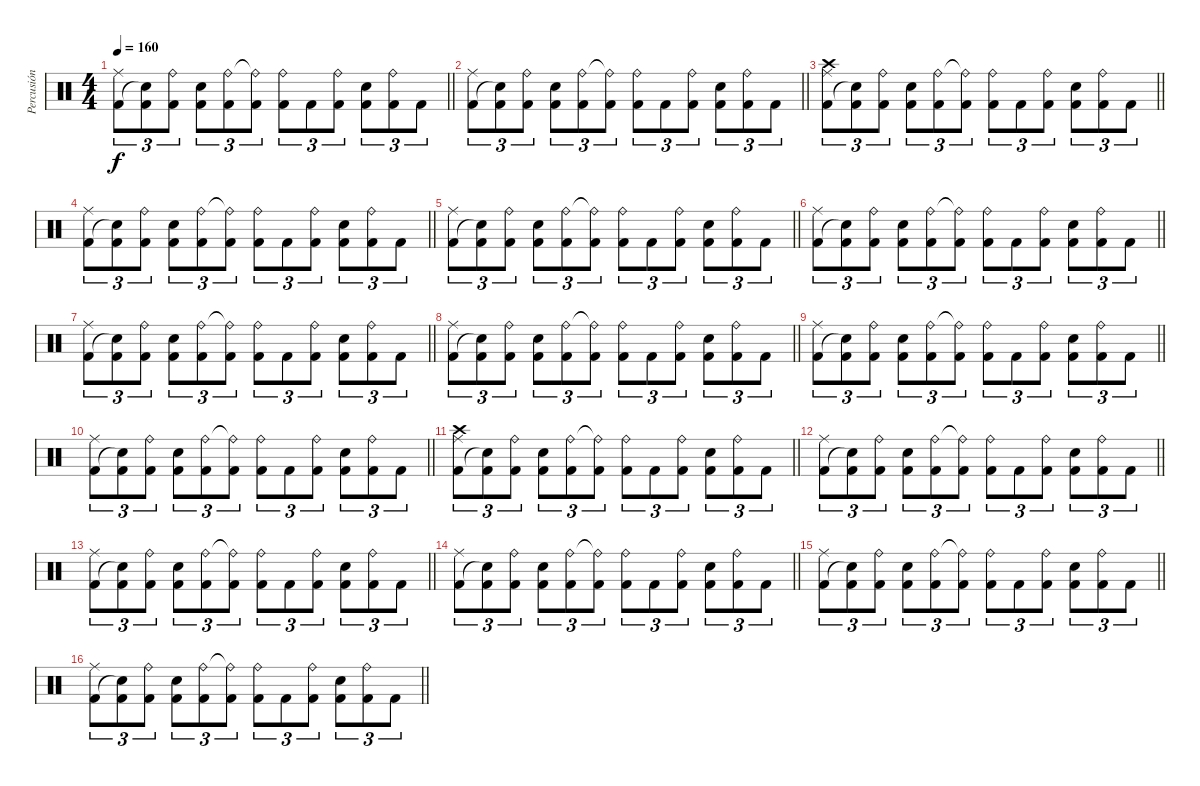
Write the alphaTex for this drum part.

\track ("Percusión" "Percusión") {instrument percussion}
\staff {score}
\articulation defaults
\ts (4 4)
\tempo 160
\clef neutral
\barLineRight lightlight
\ks c
("Ride (middle)" "Kick (hit) 2").8{tu (3 2) dy f} ("Kick (hit) 2" "Snare (hit)"{t}).8{tu (3 2)} ("Ride (bell)" "Kick (hit) 2").8{tu (3 2)} ("Snare (hit) 2" "Kick (hit) 2").8{tu (3 2)} ("Ride (bell)" "Kick (hit) 2").8{tu (3 2)} ("Ride (bell)"{t} "Kick (hit) 2").8{tu (3 2)} ("Kick (hit) 2" "Ride (bell)").8{tu (3 2)} "Kick (hit) 2".8{tu (3 2)} ("Ride (bell)" "Kick (hit) 2").8{tu (3 2)} ("Kick (hit) 2" "Snare (hit) 2").8{tu (3 2)} ("Kick (hit) 2" "Ride (bell)").8{tu (3 2)} "Kick (hit) 2".8{tu (3 2)} |
\barLineRight lightlight
("Ride (middle)" "Kick (hit) 2").8{tu (3 2)} ("Kick (hit) 2" "Snare (hit)"{t}).8{tu (3 2)} ("Ride (bell)" "Kick (hit) 2").8{tu (3 2)} ("Snare (hit) 2" "Kick (hit) 2").8{tu (3 2)} ("Ride (bell)" "Kick (hit) 2").8{tu (3 2)} ("Ride (bell)"{t} "Kick (hit) 2").8{tu (3 2)} ("Kick (hit) 2" "Ride (bell)").8{tu (3 2)} "Kick (hit) 2".8{tu (3 2)} ("Ride (bell)" "Kick (hit) 2").8{tu (3 2)} ("Kick (hit) 2" "Snare (hit) 2").8{tu (3 2)} ("Kick (hit) 2" "Ride (bell)").8{tu (3 2)} "Kick (hit) 2".8{tu (3 2)} |
\barLineRight lightlight
("Ride (middle)" "Kick (hit) 2" "Crash high (hit)").8{tu (3 2)} ("Kick (hit) 2" "Snare (hit)"{t}).8{tu (3 2)} ("Ride (bell)" "Kick (hit) 2").8{tu (3 2)} ("Snare (hit) 2" "Kick (hit) 2").8{tu (3 2)} ("Ride (bell)" "Kick (hit) 2").8{tu (3 2)} ("Ride (bell)"{t} "Kick (hit) 2").8{tu (3 2)} ("Kick (hit) 2" "Ride (bell)").8{tu (3 2)} "Kick (hit) 2".8{tu (3 2)} ("Ride (bell)" "Kick (hit) 2").8{tu (3 2)} ("Kick (hit) 2" "Snare (hit) 2").8{tu (3 2)} ("Kick (hit) 2" "Ride (bell)").8{tu (3 2)} "Kick (hit) 2".8{tu (3 2)} |
\barLineRight lightlight
("Ride (middle)" "Kick (hit) 2").8{tu (3 2)} ("Kick (hit) 2" "Snare (hit)"{t}).8{tu (3 2)} ("Ride (bell)" "Kick (hit) 2").8{tu (3 2)} ("Snare (hit) 2" "Kick (hit) 2").8{tu (3 2)} ("Ride (bell)" "Kick (hit) 2").8{tu (3 2)} ("Ride (bell)"{t} "Kick (hit) 2").8{tu (3 2)} ("Kick (hit) 2" "Ride (bell)").8{tu (3 2)} "Kick (hit) 2".8{tu (3 2)} ("Ride (bell)" "Kick (hit) 2").8{tu (3 2)} ("Kick (hit) 2" "Snare (hit) 2").8{tu (3 2)} ("Kick (hit) 2" "Ride (bell)").8{tu (3 2)} "Kick (hit) 2".8{tu (3 2)} |
\barLineRight lightlight
("Ride (middle)" "Kick (hit) 2").8{tu (3 2)} ("Kick (hit) 2" "Snare (hit)"{t}).8{tu (3 2)} ("Ride (bell)" "Kick (hit) 2").8{tu (3 2)} ("Snare (hit) 2" "Kick (hit) 2").8{tu (3 2)} ("Ride (bell)" "Kick (hit) 2").8{tu (3 2)} ("Ride (bell)"{t} "Kick (hit) 2").8{tu (3 2)} ("Kick (hit) 2" "Ride (bell)").8{tu (3 2)} "Kick (hit) 2".8{tu (3 2)} ("Ride (bell)" "Kick (hit) 2").8{tu (3 2)} ("Kick (hit) 2" "Snare (hit) 2").8{tu (3 2)} ("Kick (hit) 2" "Ride (bell)").8{tu (3 2)} "Kick (hit) 2".8{tu (3 2)} |
\barLineRight lightlight
("Ride (middle)" "Kick (hit) 2").8{tu (3 2)} ("Kick (hit) 2" "Snare (hit)"{t}).8{tu (3 2)} ("Ride (bell)" "Kick (hit) 2").8{tu (3 2)} ("Snare (hit) 2" "Kick (hit) 2").8{tu (3 2)} ("Ride (bell)" "Kick (hit) 2").8{tu (3 2)} ("Ride (bell)"{t} "Kick (hit) 2").8{tu (3 2)} ("Kick (hit) 2" "Ride (bell)").8{tu (3 2)} "Kick (hit) 2".8{tu (3 2)} ("Ride (bell)" "Kick (hit) 2").8{tu (3 2)} ("Kick (hit) 2" "Snare (hit) 2").8{tu (3 2)} ("Kick (hit) 2" "Ride (bell)").8{tu (3 2)} "Kick (hit) 2".8{tu (3 2)} |
\barLineRight lightlight
("Ride (middle)" "Kick (hit) 2").8{tu (3 2)} ("Kick (hit) 2" "Snare (hit)"{t}).8{tu (3 2)} ("Ride (bell)" "Kick (hit) 2").8{tu (3 2)} ("Snare (hit) 2" "Kick (hit) 2").8{tu (3 2)} ("Ride (bell)" "Kick (hit) 2").8{tu (3 2)} ("Ride (bell)"{t} "Kick (hit) 2").8{tu (3 2)} ("Kick (hit) 2" "Ride (bell)").8{tu (3 2)} "Kick (hit) 2".8{tu (3 2)} ("Ride (bell)" "Kick (hit) 2").8{tu (3 2)} ("Kick (hit) 2" "Snare (hit) 2").8{tu (3 2)} ("Kick (hit) 2" "Ride (bell)").8{tu (3 2)} "Kick (hit) 2".8{tu (3 2)} |
\barLineRight lightlight
("Ride (middle)" "Kick (hit) 2").8{tu (3 2)} ("Kick (hit) 2" "Snare (hit)"{t}).8{tu (3 2)} ("Ride (bell)" "Kick (hit) 2").8{tu (3 2)} ("Snare (hit) 2" "Kick (hit) 2").8{tu (3 2)} ("Ride (bell)" "Kick (hit) 2").8{tu (3 2)} ("Ride (bell)"{t} "Kick (hit) 2").8{tu (3 2)} ("Kick (hit) 2" "Ride (bell)").8{tu (3 2)} "Kick (hit) 2".8{tu (3 2)} ("Ride (bell)" "Kick (hit) 2").8{tu (3 2)} ("Kick (hit) 2" "Snare (hit) 2").8{tu (3 2)} ("Kick (hit) 2" "Ride (bell)").8{tu (3 2)} "Kick (hit) 2".8{tu (3 2)} |
\barLineRight lightlight
("Ride (middle)" "Kick (hit) 2").8{tu (3 2)} ("Kick (hit) 2" "Snare (hit)"{t}).8{tu (3 2)} ("Ride (bell)" "Kick (hit) 2").8{tu (3 2)} ("Snare (hit) 2" "Kick (hit) 2").8{tu (3 2)} ("Ride (bell)" "Kick (hit) 2").8{tu (3 2)} ("Ride (bell)"{t} "Kick (hit) 2").8{tu (3 2)} ("Kick (hit) 2" "Ride (bell)").8{tu (3 2)} "Kick (hit) 2".8{tu (3 2)} ("Ride (bell)" "Kick (hit) 2").8{tu (3 2)} ("Kick (hit) 2" "Snare (hit) 2").8{tu (3 2)} ("Kick (hit) 2" "Ride (bell)").8{tu (3 2)} "Kick (hit) 2".8{tu (3 2)} |
\barLineRight lightlight
("Ride (middle)" "Kick (hit) 2").8{tu (3 2)} ("Kick (hit) 2" "Snare (hit)"{t}).8{tu (3 2)} ("Ride (bell)" "Kick (hit) 2").8{tu (3 2)} ("Snare (hit) 2" "Kick (hit) 2").8{tu (3 2)} ("Ride (bell)" "Kick (hit) 2").8{tu (3 2)} ("Ride (bell)"{t} "Kick (hit) 2").8{tu (3 2)} ("Kick (hit) 2" "Ride (bell)").8{tu (3 2)} "Kick (hit) 2".8{tu (3 2)} ("Ride (bell)" "Kick (hit) 2").8{tu (3 2)} ("Kick (hit) 2" "Snare (hit) 2").8{tu (3 2)} ("Kick (hit) 2" "Ride (bell)").8{tu (3 2)} "Kick (hit) 2".8{tu (3 2)} |
\barLineRight lightlight
("Ride (middle)" "Kick (hit) 2" "Crash high (hit)").8{tu (3 2)} ("Kick (hit) 2" "Snare (hit)"{t}).8{tu (3 2)} ("Ride (bell)" "Kick (hit) 2").8{tu (3 2)} ("Snare (hit) 2" "Kick (hit) 2").8{tu (3 2)} ("Ride (bell)" "Kick (hit) 2").8{tu (3 2)} ("Ride (bell)"{t} "Kick (hit) 2").8{tu (3 2)} ("Kick (hit) 2" "Ride (bell)").8{tu (3 2)} "Kick (hit) 2".8{tu (3 2)} ("Ride (bell)" "Kick (hit) 2").8{tu (3 2)} ("Kick (hit) 2" "Snare (hit) 2").8{tu (3 2)} ("Kick (hit) 2" "Ride (bell)").8{tu (3 2)} "Kick (hit) 2".8{tu (3 2)} |
\barLineRight lightlight
("Ride (middle)" "Kick (hit) 2").8{tu (3 2)} ("Kick (hit) 2" "Snare (hit)"{t}).8{tu (3 2)} ("Ride (bell)" "Kick (hit) 2").8{tu (3 2)} ("Snare (hit) 2" "Kick (hit) 2").8{tu (3 2)} ("Ride (bell)" "Kick (hit) 2").8{tu (3 2)} ("Ride (bell)"{t} "Kick (hit) 2").8{tu (3 2)} ("Kick (hit) 2" "Ride (bell)").8{tu (3 2)} "Kick (hit) 2".8{tu (3 2)} ("Ride (bell)" "Kick (hit) 2").8{tu (3 2)} ("Kick (hit) 2" "Snare (hit) 2").8{tu (3 2)} ("Kick (hit) 2" "Ride (bell)").8{tu (3 2)} "Kick (hit) 2".8{tu (3 2)} |
\barLineRight lightlight
("Ride (middle)" "Kick (hit) 2").8{tu (3 2)} ("Kick (hit) 2" "Snare (hit)"{t}).8{tu (3 2)} ("Ride (bell)" "Kick (hit) 2").8{tu (3 2)} ("Snare (hit) 2" "Kick (hit) 2").8{tu (3 2)} ("Ride (bell)" "Kick (hit) 2").8{tu (3 2)} ("Ride (bell)"{t} "Kick (hit) 2").8{tu (3 2)} ("Kick (hit) 2" "Ride (bell)").8{tu (3 2)} "Kick (hit) 2".8{tu (3 2)} ("Ride (bell)" "Kick (hit) 2").8{tu (3 2)} ("Kick (hit) 2" "Snare (hit) 2").8{tu (3 2)} ("Kick (hit) 2" "Ride (bell)").8{tu (3 2)} "Kick (hit) 2".8{tu (3 2)} |
\barLineRight lightlight
("Ride (middle)" "Kick (hit) 2").8{tu (3 2)} ("Kick (hit) 2" "Snare (hit)"{t}).8{tu (3 2)} ("Ride (bell)" "Kick (hit) 2").8{tu (3 2)} ("Snare (hit) 2" "Kick (hit) 2").8{tu (3 2)} ("Ride (bell)" "Kick (hit) 2").8{tu (3 2)} ("Ride (bell)"{t} "Kick (hit) 2").8{tu (3 2)} ("Kick (hit) 2" "Ride (bell)").8{tu (3 2)} "Kick (hit) 2".8{tu (3 2)} ("Ride (bell)" "Kick (hit) 2").8{tu (3 2)} ("Kick (hit) 2" "Snare (hit) 2").8{tu (3 2)} ("Kick (hit) 2" "Ride (bell)").8{tu (3 2)} "Kick (hit) 2".8{tu (3 2)} |
\barLineRight lightlight
("Ride (middle)" "Kick (hit) 2").8{tu (3 2)} ("Kick (hit) 2" "Snare (hit)"{t}).8{tu (3 2)} ("Ride (bell)" "Kick (hit) 2").8{tu (3 2)} ("Snare (hit) 2" "Kick (hit) 2").8{tu (3 2)} ("Ride (bell)" "Kick (hit) 2").8{tu (3 2)} ("Ride (bell)"{t} "Kick (hit) 2").8{tu (3 2)} ("Kick (hit) 2" "Ride (bell)").8{tu (3 2)} "Kick (hit) 2".8{tu (3 2)} ("Ride (bell)" "Kick (hit) 2").8{tu (3 2)} ("Kick (hit) 2" "Snare (hit) 2").8{tu (3 2)} ("Kick (hit) 2" "Ride (bell)").8{tu (3 2)} "Kick (hit) 2".8{tu (3 2)} |
\barLineRight lightlight
("Ride (middle)" "Kick (hit) 2").8{tu (3 2)} ("Kick (hit) 2" "Snare (hit)"{t}).8{tu (3 2)} ("Ride (bell)" "Kick (hit) 2").8{tu (3 2)} ("Snare (hit) 2" "Kick (hit) 2").8{tu (3 2)} ("Ride (bell)" "Kick (hit) 2").8{tu (3 2)} ("Ride (bell)"{t} "Kick (hit) 2").8{tu (3 2)} ("Kick (hit) 2" "Ride (bell)").8{tu (3 2)} "Kick (hit) 2".8{tu (3 2)} ("Ride (bell)" "Kick (hit) 2").8{tu (3 2)} ("Kick (hit) 2" "Snare (hit) 2").8{tu (3 2)} ("Kick (hit) 2" "Ride (bell)").8{tu (3 2)} "Kick (hit) 2".8{tu (3 2)}
